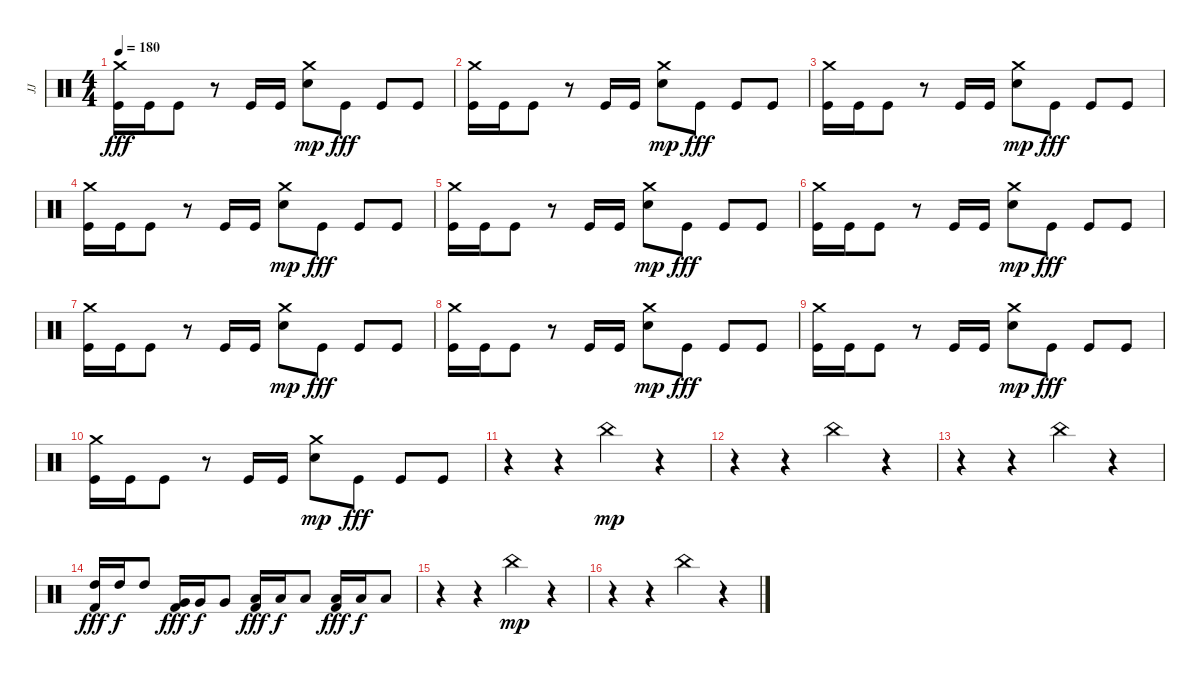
\track ("JJ" "JJ") {mute instrument percussion}
\staff {score}
\articulation defaults
\ts (4 4)
\tempo 180
\clef neutral
\ks c
("Crash medium (hit)" "Kick (hit)").16{dy fff} "Kick (hit)".16 "Kick (hit)".8 r.8 "Kick (hit)".16 "Kick (hit)".16 ("Crash medium (hit)" "Snare (hit) 2").8{dy mp} "Kick (hit)".8{dy fff} "Kick (hit)".8 "Kick (hit)".8 |
("Crash medium (hit)" "Kick (hit)").16 "Kick (hit)".16 "Kick (hit)".8 r.8 "Kick (hit)".16 "Kick (hit)".16 ("Crash medium (hit)" "Snare (hit) 2").8{dy mp} "Kick (hit)".8{dy fff} "Kick (hit)".8 "Kick (hit)".8 |
("Crash medium (hit)" "Kick (hit)").16 "Kick (hit)".16 "Kick (hit)".8 r.8 "Kick (hit)".16 "Kick (hit)".16 ("Crash medium (hit)" "Snare (hit) 2").8{dy mp} "Kick (hit)".8{dy fff} "Kick (hit)".8 "Kick (hit)".8 |
("Crash medium (hit)" "Kick (hit)").16 "Kick (hit)".16 "Kick (hit)".8 r.8 "Kick (hit)".16 "Kick (hit)".16 ("Crash medium (hit)" "Snare (hit) 2").8{dy mp} "Kick (hit)".8{dy fff} "Kick (hit)".8 "Kick (hit)".8 |
("Crash medium (hit)" "Kick (hit)").16 "Kick (hit)".16 "Kick (hit)".8 r.8 "Kick (hit)".16 "Kick (hit)".16 ("Crash medium (hit)" "Snare (hit) 2").8{dy mp} "Kick (hit)".8{dy fff} "Kick (hit)".8 "Kick (hit)".8 |
("Crash medium (hit)" "Kick (hit)").16 "Kick (hit)".16 "Kick (hit)".8 r.8 "Kick (hit)".16 "Kick (hit)".16 ("Crash medium (hit)" "Snare (hit) 2").8{dy mp} "Kick (hit)".8{dy fff} "Kick (hit)".8 "Kick (hit)".8 |
("Crash medium (hit)" "Kick (hit)").16 "Kick (hit)".16 "Kick (hit)".8 r.8 "Kick (hit)".16 "Kick (hit)".16 ("Crash medium (hit)" "Snare (hit) 2").8{dy mp} "Kick (hit)".8{dy fff} "Kick (hit)".8 "Kick (hit)".8 |
("Crash medium (hit)" "Kick (hit)").16 "Kick (hit)".16 "Kick (hit)".8 r.8 "Kick (hit)".16 "Kick (hit)".16 ("Crash medium (hit)" "Snare (hit) 2").8{dy mp} "Kick (hit)".8{dy fff} "Kick (hit)".8 "Kick (hit)".8 |
("Crash medium (hit)" "Kick (hit)").16 "Kick (hit)".16 "Kick (hit)".8 r.8 "Kick (hit)".16 "Kick (hit)".16 ("Crash medium (hit)" "Snare (hit) 2").8{dy mp} "Kick (hit)".8{dy fff} "Kick (hit)".8 "Kick (hit)".8 |
("Crash medium (hit)" "Kick (hit)").16 "Kick (hit)".16 "Kick (hit)".8 r.8 "Kick (hit)".16 "Kick (hit)".16 ("Crash medium (hit)" "Snare (hit) 2").8{dy mp} "Kick (hit)".8{dy fff} "Kick (hit)".8 "Kick (hit)".8 |
r.4 r.4 "China (hit)".4{dy mp} r.4 |
r.4 r.4 "China (hit)".4 r.4 |
r.4 r.4 "China (hit)".4 r.4 |
("High Tom (hit)" "Kick (hit) 2").16{dy fff} "High Tom (hit)".16{dy f} "High Tom (hit)".8 ("Very Low Tom (hit)" "Kick (hit) 2").16{dy fff} "Very Low Tom (hit)".16{dy f} "Very Low Tom (hit)".8 ("Low Floor Tom (hit)" "Kick (hit) 2").16{dy fff} "Low Floor Tom (hit)".16{dy f} "Low Floor Tom (hit)".8 ("Low Floor Tom (hit)" "Kick (hit) 2").16{dy fff} "Low Floor Tom (hit)".16{dy f} "Low Floor Tom (hit)".8 |
r.4 r.4 "China (hit)".4{dy mp} r.4 |
r.4 r.4 "China (hit)".4 r.4
